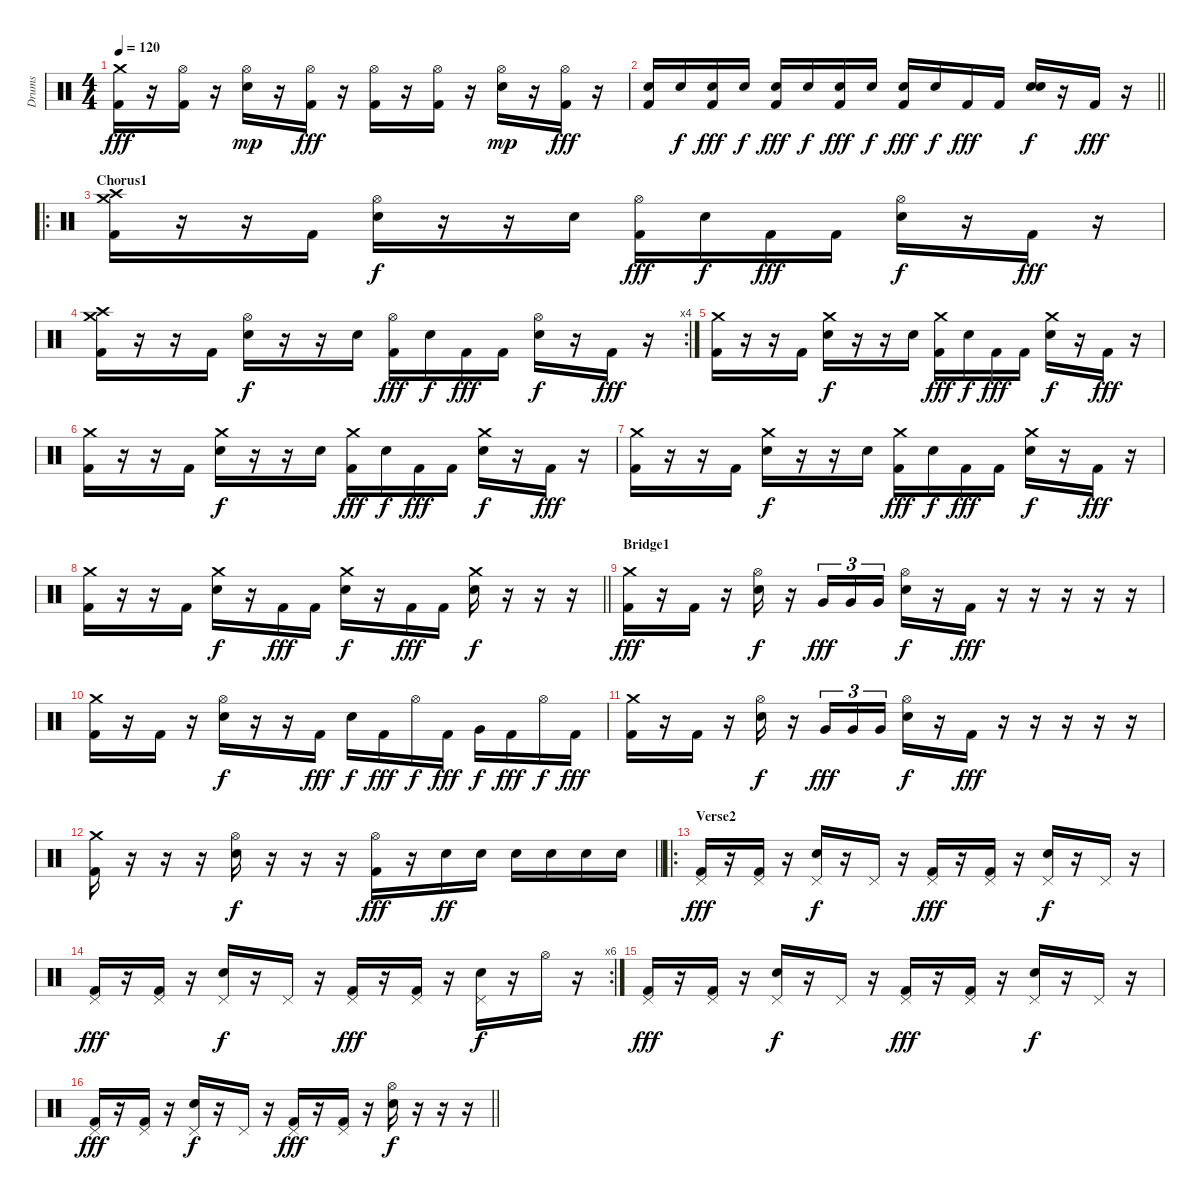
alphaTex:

\track ("Drums" "Drums") {instrument percussion}
\staff {score}
\articulation defaults
\ts (4 4)
\tempo 120
\clef neutral
\ks c
("Crash medium (hit)" "Kick (hit) 2").16{dy fff} r.16 ("Hi-Hat (open)" "Kick (hit) 2").16 r.16 ("Hi-Hat (open)" "Snare (hit) 2").16{dy mp} r.16 ("Hi-Hat (open)" "Kick (hit) 2").16{dy fff} r.16 ("Hi-Hat (open)" "Kick (hit) 2").16 r.16 ("Hi-Hat (open)" "Kick (hit) 2").16 r.16 ("Hi-Hat (open)" "Snare (hit) 2").16{dy mp} r.16 ("Hi-Hat (open)" "Kick (hit) 2").16{dy fff} r.16 |
\barLineRight lightlight
("Snare (hit) 2" "Kick (hit) 2").16 "Snare (hit) 2".16{dy f} ("Snare (hit) 2" "Kick (hit) 2").16{dy fff} "Snare (hit) 2".16{dy f} ("Snare (hit) 2" "Kick (hit) 2").16{dy fff} "Snare (hit) 2".16{dy f} ("Snare (hit) 2" "Kick (hit) 2").16{dy fff} "Snare (hit) 2".16{dy f} ("Snare (hit) 2" "Kick (hit) 2").16{dy fff} "Snare (hit) 2".16{dy f} "Kick (hit) 2".16{dy fff} "Kick (hit) 2".16 ("Electric Snare (hit)" "Snare (hit) 2").16{dy f} r.16 "Kick (hit) 2".16{dy fff} r.16 |
\ro
\section ("" "Chorus1")
("Crash medium (hit)" "Crash high (hit)" "Kick (hit) 2").16 r.16 r.16 "Kick (hit) 2".16 ("Hi-Hat (open)" "Snare (hit) 2").16{dy f} r.16 r.16 "Snare (hit) 2".16 ("Hi-Hat (open)" "Kick (hit) 2").16{dy fff} "Snare (hit) 2".16{dy f} "Kick (hit) 2".16{dy fff} "Kick (hit) 2".16 ("Hi-Hat (open)" "Snare (hit) 2").16{dy f} r.16 "Kick (hit) 2".16{dy fff} r.16 |
\rc 4
("Crash medium (hit)" "Crash high (hit)" "Kick (hit) 2").16 r.16 r.16 "Kick (hit) 2".16 ("Hi-Hat (open)" "Snare (hit) 2").16{dy f} r.16 r.16 "Snare (hit) 2".16 ("Hi-Hat (open)" "Kick (hit) 2").16{dy fff} "Snare (hit) 2".16{dy f} "Kick (hit) 2".16{dy fff} "Kick (hit) 2".16 ("Hi-Hat (open)" "Snare (hit) 2").16{dy f} r.16 "Kick (hit) 2".16{dy fff} r.16 |
("Crash medium (hit)" "Kick (hit) 2").16 r.16 r.16 "Kick (hit) 2".16 ("Crash medium (hit)" "Snare (hit) 2").16{dy f} r.16 r.16 "Snare (hit) 2".16 ("Crash medium (hit)" "Kick (hit) 2").16{dy fff} "Snare (hit) 2".16{dy f} "Kick (hit) 2".16{dy fff} "Kick (hit) 2".16 ("Crash medium (hit)" "Snare (hit) 2").16{dy f} r.16 "Kick (hit) 2".16{dy fff} r.16 |
("Crash medium (hit)" "Kick (hit) 2").16 r.16 r.16 "Kick (hit) 2".16 ("Crash medium (hit)" "Snare (hit) 2").16{dy f} r.16 r.16 "Snare (hit) 2".16 ("Crash medium (hit)" "Kick (hit) 2").16{dy fff} "Snare (hit) 2".16{dy f} "Kick (hit) 2".16{dy fff} "Kick (hit) 2".16 ("Crash medium (hit)" "Snare (hit) 2").16{dy f} r.16 "Kick (hit) 2".16{dy fff} r.16 |
("Crash medium (hit)" "Kick (hit) 2").16 r.16 r.16 "Kick (hit) 2".16 ("Crash medium (hit)" "Snare (hit) 2").16{dy f} r.16 r.16 "Snare (hit) 2".16 ("Crash medium (hit)" "Kick (hit) 2").16{dy fff} "Snare (hit) 2".16{dy f} "Kick (hit) 2".16{dy fff} "Kick (hit) 2".16 ("Crash medium (hit)" "Snare (hit) 2").16{dy f} r.16 "Kick (hit) 2".16{dy fff} r.16 |
\barLineRight lightlight
("Crash medium (hit)" "Kick (hit) 2").16 r.16 r.16 "Kick (hit) 2".16 ("Crash medium (hit)" "Snare (hit) 2").16{dy f} r.16 "Kick (hit) 2".16{dy fff} "Kick (hit) 2".16 ("Crash medium (hit)" "Snare (hit) 2").16{dy f} r.16 "Kick (hit) 2".16{dy fff} "Kick (hit) 2".16 ("Crash medium (hit)" "Snare (hit) 2").16{dy f} r.16 r.16 r.16 |
\section ("" "Bridge1")
("Crash medium (hit)" "Kick (hit) 2").16{dy fff} r.16 "Kick (hit) 2".16 r.16 ("Hi-Hat (open)" "Snare (hit) 2").16{dy f} r.16 "Very Low Tom (hit)".16{tu (3 2) dy fff} "Very Low Tom (hit)".16{tu (3 2)} "Very Low Tom (hit)".16{tu (3 2)} ("Hi-Hat (open)" "Snare (hit) 2").16{dy f} r.16 "Kick (hit) 2".16{dy fff} r.16 r.16 r.16 r.16 r.16 |
("Crash medium (hit)" "Kick (hit) 2").16 r.16 "Kick (hit) 2".16 r.16 ("Hi-Hat (open)" "Snare (hit) 2").16{dy f} r.16 r.16 "Kick (hit) 2".16{dy fff} "Snare (hit) 2".16{dy f} "Kick (hit) 2".16{dy fff} "Hi-Hat (open)".16{dy f} "Kick (hit) 2".16{dy fff} "Very Low Tom (hit)".16{dy f} "Kick (hit) 2".16{dy fff} "Hi-Hat (open)".16{dy f} "Kick (hit) 2".16{dy fff} |
("Crash medium (hit)" "Kick (hit) 2").16 r.16 "Kick (hit) 2".16 r.16 ("Hi-Hat (open)" "Snare (hit) 2").16{dy f} r.16 "Very Low Tom (hit)".16{tu (3 2) dy fff} "Very Low Tom (hit)".16{tu (3 2)} "Very Low Tom (hit)".16{tu (3 2)} ("Hi-Hat (open)" "Snare (hit) 2").16{dy f} r.16 "Kick (hit) 2".16{dy fff} r.16 r.16 r.16 r.16 r.16 |
\barLineRight lightlight
("Crash medium (hit)" "Kick (hit) 2").16 r.16 r.16 r.16 ("Hi-Hat (open)" "Snare (hit) 2").16{dy f} r.16 r.16 r.16 ("Hi-Hat (open)" "Kick (hit) 2").16{dy fff} r.16 "Snare (hit) 2".16{dy ff} "Snare (hit) 2".16 "Snare (hit) 2".16 "Snare (hit) 2".16 "Snare (hit) 2".16 "Snare (hit) 2".16 |
\ro
\section ("" "Verse2")
("Pedal Hi-Hat (hit)" "Kick (hit) 2").16{dy fff} r.16 ("Pedal Hi-Hat (hit)" "Kick (hit) 2").16 r.16 ("Pedal Hi-Hat (hit)" "Snare (hit) 2").16{dy f} r.16 "Pedal Hi-Hat (hit)".16 r.16 ("Pedal Hi-Hat (hit)" "Kick (hit) 2").16{dy fff} r.16 ("Pedal Hi-Hat (hit)" "Kick (hit) 2").16 r.16 ("Pedal Hi-Hat (hit)" "Snare (hit) 2").16{dy f} r.16 "Pedal Hi-Hat (hit)".16 r.16 |
\rc 6
("Pedal Hi-Hat (hit)" "Kick (hit) 2").16{dy fff} r.16 ("Pedal Hi-Hat (hit)" "Kick (hit) 2").16 r.16 ("Pedal Hi-Hat (hit)" "Snare (hit) 2").16{dy f} r.16 "Pedal Hi-Hat (hit)".16 r.16 ("Pedal Hi-Hat (hit)" "Kick (hit) 2").16{dy fff} r.16 ("Pedal Hi-Hat (hit)" "Kick (hit) 2").16 r.16 ("Pedal Hi-Hat (hit)" "Snare (hit) 2").16{dy f} r.16 "Hi-Hat (open)".16 r.16 |
("Pedal Hi-Hat (hit)" "Kick (hit) 2").16{dy fff} r.16 ("Pedal Hi-Hat (hit)" "Kick (hit) 2").16 r.16 ("Pedal Hi-Hat (hit)" "Snare (hit) 2").16{dy f} r.16 "Pedal Hi-Hat (hit)".16 r.16 ("Pedal Hi-Hat (hit)" "Kick (hit) 2").16{dy fff} r.16 ("Pedal Hi-Hat (hit)" "Kick (hit) 2").16 r.16 ("Pedal Hi-Hat (hit)" "Snare (hit) 2").16{dy f} r.16 "Pedal Hi-Hat (hit)".16 r.16 |
\barLineRight lightlight
("Pedal Hi-Hat (hit)" "Kick (hit) 2").16{dy fff} r.16 ("Pedal Hi-Hat (hit)" "Kick (hit) 2").16 r.16 ("Pedal Hi-Hat (hit)" "Snare (hit) 2").16{dy f} r.16 "Pedal Hi-Hat (hit)".16 r.16 ("Pedal Hi-Hat (hit)" "Kick (hit) 2").16{dy fff} r.16 ("Pedal Hi-Hat (hit)" "Kick (hit) 2").16 r.16 ("Hi-Hat (open)" "Snare (hit) 2").16{dy f} r.16 r.16 r.16
